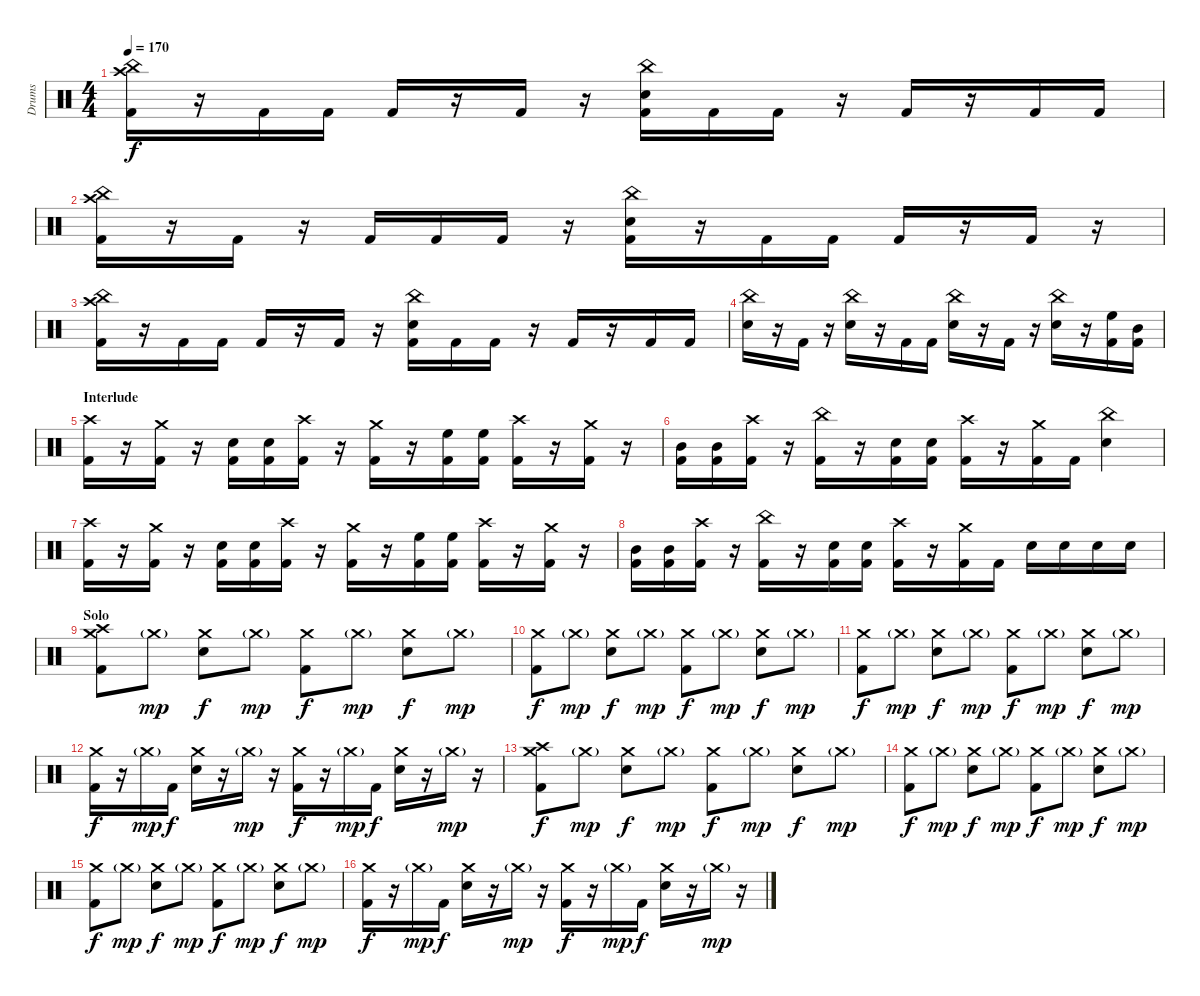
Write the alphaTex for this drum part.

\track ("Drums" "Drums") {instrument percussion}
\staff {score}
\articulation defaults
\ts (4 4)
\tempo 170
\clef neutral
\ks c
("China (hit)" "Crash high (hit)" "Kick (hit) 2").16{dy f} r.16 "Kick (hit) 2".16 "Kick (hit) 2".16 "Kick (hit) 2".16 r.16 "Kick (hit) 2".16 r.16 ("China (hit)" "Electric Snare (hit)" "Kick (hit) 2").16 "Kick (hit) 2".16 "Kick (hit) 2".16 r.16 "Kick (hit) 2".16 r.16 "Kick (hit) 2".16 "Kick (hit) 2".16 |
("China (hit)" "Crash high (hit)" "Kick (hit) 2").16 r.16 "Kick (hit) 2".16 r.16 "Kick (hit) 2".16 "Kick (hit) 2".16 "Kick (hit) 2".16 r.16 ("China (hit)" "Electric Snare (hit)" "Kick (hit) 2").16 r.16 "Kick (hit) 2".16 "Kick (hit) 2".16 "Kick (hit) 2".16 r.16 "Kick (hit) 2".16 r.16 |
("China (hit)" "Crash high (hit)" "Kick (hit) 2").16 r.16 "Kick (hit) 2".16 "Kick (hit) 2".16 "Kick (hit) 2".16 r.16 "Kick (hit) 2".16 r.16 ("China (hit)" "Electric Snare (hit)" "Kick (hit) 2").16 "Kick (hit) 2".16 "Kick (hit) 2".16 r.16 "Kick (hit) 2".16 r.16 "Kick (hit) 2".16 "Kick (hit) 2".16 |
("China (hit)" "Electric Snare (hit)").16 r.16 "Kick (hit) 2".16 r.16 ("China (hit)" "Electric Snare (hit)").16 r.16 "Kick (hit) 2".16 "Kick (hit) 2".16 ("China (hit)" "Electric Snare (hit)").16 r.16 "Kick (hit) 2".16 r.16 ("China (hit)" "Electric Snare (hit)").16 r.16 ("High Floor Tom (hit)" "Kick (hit) 2").16 ("Mid Tom (hit)" "Kick (hit) 2").16 |
\section ("" "Interlude")
("Crash high (hit)" "Kick (hit) 2").16 r.16 ("Crash medium (hit)" "Kick (hit) 2").16 r.16 ("Electric Snare (hit)" "Kick (hit) 2").16 ("Electric Snare (hit)" "Kick (hit) 2").16 ("Crash high (hit)" "Kick (hit) 2").16 r.16 ("Crash medium (hit)" "Kick (hit) 2").16 r.16 ("High Floor Tom (hit)" "Kick (hit) 2").16 ("High Floor Tom (hit)" "Kick (hit) 2").16 ("Crash high (hit)" "Kick (hit) 2").16 r.16 ("Crash medium (hit)" "Kick (hit) 2").16 r.16 |
("Mid Tom (hit)" "Kick (hit) 2").16 ("Mid Tom (hit)" "Kick (hit) 2").16 ("Crash high (hit)" "Kick (hit) 2").16 r.16 ("China (hit)" "Kick (hit) 2").16 r.16 ("Electric Snare (hit)" "Kick (hit) 2").16 ("Electric Snare (hit)" "Kick (hit) 2").16 ("Crash high (hit)" "Kick (hit) 2").16 r.16 ("Crash medium (hit)" "Kick (hit) 2").16 "Kick (hit) 2".16 ("China (hit)" "Electric Snare (hit)").4 |
("Crash high (hit)" "Kick (hit) 2").16 r.16 ("Crash medium (hit)" "Kick (hit) 2").16 r.16 ("Electric Snare (hit)" "Kick (hit) 2").16 ("Electric Snare (hit)" "Kick (hit) 2").16 ("Crash high (hit)" "Kick (hit) 2").16 r.16 ("Crash medium (hit)" "Kick (hit) 2").16 r.16 ("High Floor Tom (hit)" "Kick (hit) 2").16 ("High Floor Tom (hit)" "Kick (hit) 2").16 ("Crash high (hit)" "Kick (hit) 2").16 r.16 ("Crash medium (hit)" "Kick (hit) 2").16 r.16 |
("Mid Tom (hit)" "Kick (hit) 2").16 ("Mid Tom (hit)" "Kick (hit) 2").16 ("Crash high (hit)" "Kick (hit) 2").16 r.16 ("China (hit)" "Kick (hit) 2").16 r.16 ("Electric Snare (hit)" "Kick (hit) 2").16 ("Electric Snare (hit)" "Kick (hit) 2").16 ("Crash high (hit)" "Kick (hit) 2").16 r.16 ("Crash medium (hit)" "Kick (hit) 2").16 "Kick (hit) 2".16 "Electric Snare (hit)".16 "Electric Snare (hit)".16 "Electric Snare (hit)".16 "Electric Snare (hit)".16 |
\section ("" "Solo")
("Crash medium (hit)" "Crash high (hit)" "Kick (hit) 2").8 "Crash medium (hit)"{g}.8{dy mp} ("Crash medium (hit)" "Electric Snare (hit)").8{dy f} "Crash medium (hit)"{g}.8{dy mp} ("Crash medium (hit)" "Kick (hit) 2").8{dy f} "Crash medium (hit)"{g}.8{dy mp} ("Crash medium (hit)" "Electric Snare (hit)").8{dy f} "Crash medium (hit)"{g}.8{dy mp} |
("Crash medium (hit)" "Kick (hit) 2").8{dy f} "Crash medium (hit)"{g}.8{dy mp} ("Crash medium (hit)" "Electric Snare (hit)").8{dy f} "Crash medium (hit)"{g}.8{dy mp} ("Crash medium (hit)" "Kick (hit) 2").8{dy f} "Crash medium (hit)"{g}.8{dy mp} ("Crash medium (hit)" "Electric Snare (hit)").8{dy f} "Crash medium (hit)"{g}.8{dy mp} |
("Crash medium (hit)" "Kick (hit) 2").8{dy f} "Crash medium (hit)"{g}.8{dy mp} ("Crash medium (hit)" "Electric Snare (hit)").8{dy f} "Crash medium (hit)"{g}.8{dy mp} ("Crash medium (hit)" "Kick (hit) 2").8{dy f} "Crash medium (hit)"{g}.8{dy mp} ("Crash medium (hit)" "Electric Snare (hit)").8{dy f} "Crash medium (hit)"{g}.8{dy mp} |
("Crash medium (hit)" "Kick (hit) 2").16{dy f} r.16 "Crash medium (hit)"{g}.16{dy mp} "Kick (hit) 2".16{dy f} ("Crash medium (hit)" "Electric Snare (hit)").16 r.16 "Crash medium (hit)"{g}.16{dy mp} r.16 ("Crash medium (hit)" "Kick (hit) 2").16{dy f} r.16 "Crash medium (hit)"{g}.16{dy mp} "Kick (hit) 2".16{dy f} ("Crash medium (hit)" "Electric Snare (hit)").16 r.16 "Crash medium (hit)"{g}.16{dy mp} r.16 |
("Crash medium (hit)" "Crash high (hit)" "Kick (hit) 2").8{dy f} "Crash medium (hit)"{g}.8{dy mp} ("Crash medium (hit)" "Electric Snare (hit)").8{dy f} "Crash medium (hit)"{g}.8{dy mp} ("Crash medium (hit)" "Kick (hit) 2").8{dy f} "Crash medium (hit)"{g}.8{dy mp} ("Crash medium (hit)" "Electric Snare (hit)").8{dy f} "Crash medium (hit)"{g}.8{dy mp} |
("Crash medium (hit)" "Kick (hit) 2").8{dy f} "Crash medium (hit)"{g}.8{dy mp} ("Crash medium (hit)" "Electric Snare (hit)").8{dy f} "Crash medium (hit)"{g}.8{dy mp} ("Crash medium (hit)" "Kick (hit) 2").8{dy f} "Crash medium (hit)"{g}.8{dy mp} ("Crash medium (hit)" "Electric Snare (hit)").8{dy f} "Crash medium (hit)"{g}.8{dy mp} |
("Crash medium (hit)" "Kick (hit) 2").8{dy f} "Crash medium (hit)"{g}.8{dy mp} ("Crash medium (hit)" "Electric Snare (hit)").8{dy f} "Crash medium (hit)"{g}.8{dy mp} ("Crash medium (hit)" "Kick (hit) 2").8{dy f} "Crash medium (hit)"{g}.8{dy mp} ("Crash medium (hit)" "Electric Snare (hit)").8{dy f} "Crash medium (hit)"{g}.8{dy mp} |
("Crash medium (hit)" "Kick (hit) 2").16{dy f} r.16 "Crash medium (hit)"{g}.16{dy mp} "Kick (hit) 2".16{dy f} ("Crash medium (hit)" "Electric Snare (hit)").16 r.16 "Crash medium (hit)"{g}.16{dy mp} r.16 ("Crash medium (hit)" "Kick (hit) 2").16{dy f} r.16 "Crash medium (hit)"{g}.16{dy mp} "Kick (hit) 2".16{dy f} ("Crash medium (hit)" "Electric Snare (hit)").16 r.16 "Crash medium (hit)"{g}.16{dy mp} r.16
